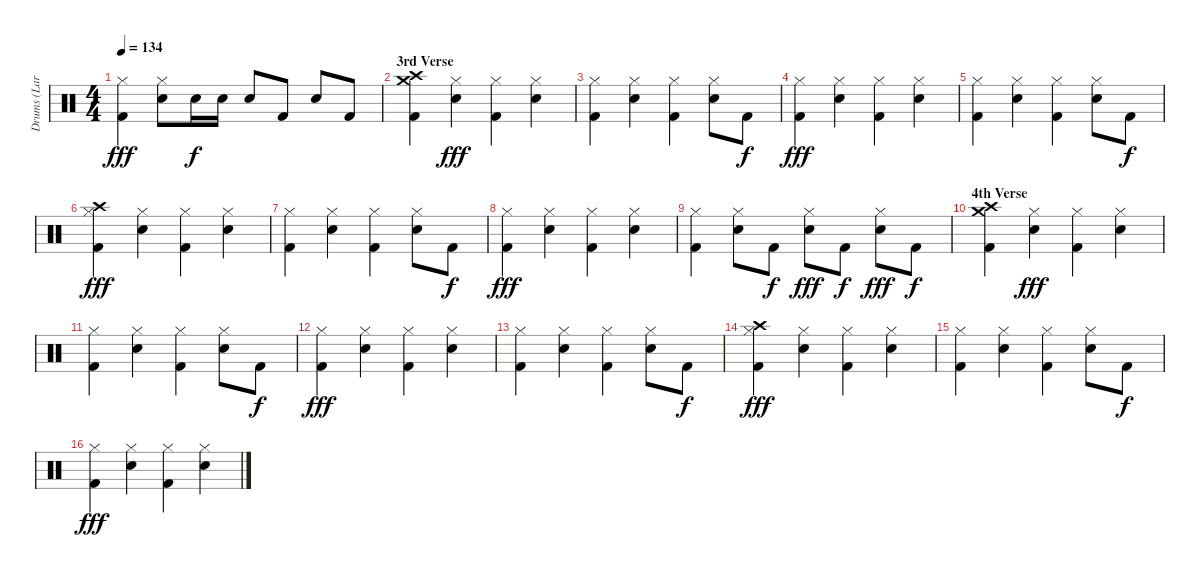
\track ("Drums (Lars)" "Drums (Lar") {instrument percussion}
\staff {score}
\articulation defaults
\ts (4 4)
\tempo 134
\clef neutral
\ks c
("Hi-Hat (closed)" "Kick (hit) 2").4{dy fff} ("Hi-Hat (closed)" "Snare (hit) 2").8 "Snare (hit) 2".16{dy f} "Snare (hit) 2".16 "Snare (hit) 2".8 "Kick (hit) 2".8 "Snare (hit) 2".8 "Kick (hit) 2".8 |
\section ("" "3rd Verse")
("Crash high (hit)" "Crash medium (hit)" "Kick (hit) 2").4 ("Hi-Hat (closed)" "Snare (hit) 2").4{dy fff} ("Hi-Hat (closed)" "Kick (hit) 2").4 ("Hi-Hat (closed)" "Snare (hit) 2").4 |
("Hi-Hat (closed)" "Kick (hit) 2").4 ("Hi-Hat (closed)" "Snare (hit) 2").4 ("Hi-Hat (closed)" "Kick (hit) 2").4 ("Hi-Hat (closed)" "Snare (hit) 2").8 "Kick (hit) 2".8{dy f} |
("Hi-Hat (closed)" "Kick (hit) 2").4{dy fff} ("Hi-Hat (closed)" "Snare (hit) 2").4 ("Hi-Hat (closed)" "Kick (hit) 2").4 ("Hi-Hat (closed)" "Snare (hit) 2").4 |
("Hi-Hat (closed)" "Kick (hit) 2").4 ("Hi-Hat (closed)" "Snare (hit) 2").4 ("Hi-Hat (closed)" "Kick (hit) 2").4 ("Hi-Hat (closed)" "Snare (hit) 2").8 "Kick (hit) 2".8{dy f} |
("Crash high (hit)" "Hi-Hat (closed)" "Kick (hit) 2").4{dy fff} ("Hi-Hat (closed)" "Snare (hit) 2").4 ("Hi-Hat (closed)" "Kick (hit) 2").4 ("Hi-Hat (closed)" "Snare (hit) 2").4 |
("Hi-Hat (closed)" "Kick (hit) 2").4 ("Hi-Hat (closed)" "Snare (hit) 2").4 ("Hi-Hat (closed)" "Kick (hit) 2").4 ("Hi-Hat (closed)" "Snare (hit) 2").8 "Kick (hit) 2".8{dy f} |
("Hi-Hat (closed)" "Kick (hit) 2").4{dy fff} ("Hi-Hat (closed)" "Snare (hit) 2").4 ("Hi-Hat (closed)" "Kick (hit) 2").4 ("Hi-Hat (closed)" "Snare (hit) 2").4 |
("Hi-Hat (closed)" "Kick (hit) 2").4 ("Hi-Hat (closed)" "Snare (hit) 2").8 "Kick (hit) 2".8{dy f} ("Hi-Hat (closed)" "Snare (hit) 2").8{dy fff} "Kick (hit) 2".8{dy f} ("Hi-Hat (closed)" "Snare (hit) 2").8{dy fff} "Kick (hit) 2".8{dy f} |
\section ("" "4th Verse")
("Crash high (hit)" "Crash medium (hit)" "Kick (hit) 2").4 ("Hi-Hat (closed)" "Snare (hit) 2").4{dy fff} ("Hi-Hat (closed)" "Kick (hit) 2").4 ("Hi-Hat (closed)" "Snare (hit) 2").4 |
("Hi-Hat (closed)" "Kick (hit) 2").4 ("Hi-Hat (closed)" "Snare (hit) 2").4 ("Hi-Hat (closed)" "Kick (hit) 2").4 ("Hi-Hat (closed)" "Snare (hit) 2").8 "Kick (hit) 2".8{dy f} |
("Hi-Hat (closed)" "Kick (hit) 2").4{dy fff} ("Hi-Hat (closed)" "Snare (hit) 2").4 ("Hi-Hat (closed)" "Kick (hit) 2").4 ("Hi-Hat (closed)" "Snare (hit) 2").4 |
("Hi-Hat (closed)" "Kick (hit) 2").4 ("Hi-Hat (closed)" "Snare (hit) 2").4 ("Hi-Hat (closed)" "Kick (hit) 2").4 ("Hi-Hat (closed)" "Snare (hit) 2").8 "Kick (hit) 2".8{dy f} |
("Crash high (hit)" "Hi-Hat (closed)" "Kick (hit) 2").4{dy fff} ("Hi-Hat (closed)" "Snare (hit) 2").4 ("Hi-Hat (closed)" "Kick (hit) 2").4 ("Hi-Hat (closed)" "Snare (hit) 2").4 |
("Hi-Hat (closed)" "Kick (hit) 2").4 ("Hi-Hat (closed)" "Snare (hit) 2").4 ("Hi-Hat (closed)" "Kick (hit) 2").4 ("Hi-Hat (closed)" "Snare (hit) 2").8 "Kick (hit) 2".8{dy f} |
("Hi-Hat (closed)" "Kick (hit) 2").4{dy fff} ("Hi-Hat (closed)" "Snare (hit) 2").4 ("Hi-Hat (closed)" "Kick (hit) 2").4 ("Hi-Hat (closed)" "Snare (hit) 2").4
